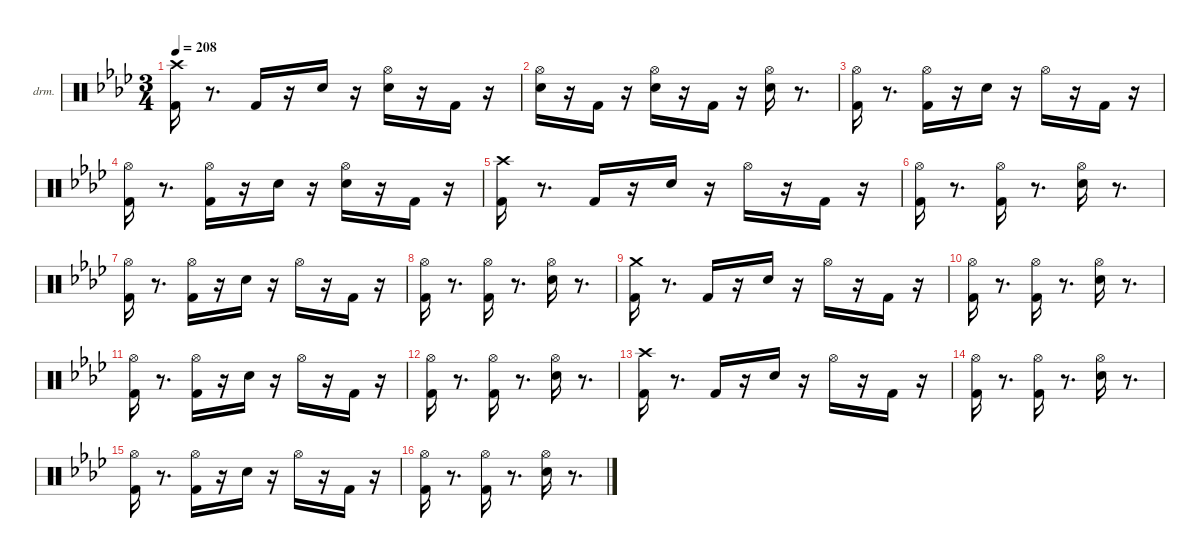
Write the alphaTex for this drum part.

\hideDynamics
\bracketExtendMode nobrackets
\firstSystemTrackNameOrientation horizontal
\otherSystemsTrackNameOrientation horizontal
\track ("EZdrummer 3" "drm.") {instrument percussion}
\staff {score}
\articulation defaults
\ts (3 4)
\tempo 208
\clef neutral
\ks fminor
("Kick (hit) 2"{acc forcenatural} "Crash high (hit)"{acc b}).16{dy ff beam Down} r.8{d beam Down} "Kick (hit) 2"{acc forcenatural}.16{dy f beam Up} r.16{beam Up} "Snare (hit) 2"{acc forcenatural}.16{dy mp beam Down} r.16{beam Down} ("Snare (hit) 2"{acc forcenatural} "Hi-Hat (open)"{acc b}).16{dy f beam Down} r.16{beam Down} "Kick (hit) 2"{acc forcenatural}.16{dy ff beam Up} r.16{beam Up} |
("Snare (hit) 2"{acc forcenatural} "Hi-Hat (open)"{acc b}).16{beam Down} r.16{beam Down} "Kick (hit) 2"{acc forcenatural}.16{beam Up} r.16{beam Up} ("Snare (hit) 2"{acc forcenatural} "Hi-Hat (open)"{acc b}).16{beam Down} r.16{beam Down} "Kick (hit) 2"{acc forcenatural}.16{beam Up} r.16{beam Up} ("Snare (hit) 2"{acc forcenatural} "Hi-Hat (open)"{acc b}).16{beam Down} r.8{d beam Down} |
("Kick (hit) 2"{acc forcenatural} "Hi-Hat (open)"{acc b}).16{beam Down} r.8{d beam Down} ("Kick (hit) 2"{acc forcenatural} "Hi-Hat (open)"{acc b}).16{dy f beam Down} r.16{beam Down} "Snare (hit) 2"{acc forcenatural}.16{dy ff beam Down} r.16{beam Down} "Hi-Hat (open)"{acc b}.16{dy f beam Down} r.16{beam Down} "Kick (hit) 2"{acc forcenatural}.16{beam Up} r.16{beam Up} |
("Kick (hit) 2"{acc forcenatural} "Hi-Hat (open)"{acc b}).16{dy ff beam Down} r.8{d beam Down} ("Kick (hit) 2"{acc forcenatural} "Hi-Hat (open)"{acc b}).16{dy f beam Down} r.16{beam Down} "Snare (hit) 2"{acc forcenatural}.16{dy ppp beam Down} r.16{beam Down} ("Snare (hit) 2"{acc forcenatural} "Hi-Hat (open)"{acc b}).16{dy f beam Down} r.16{beam Down} "Kick (hit) 2"{acc forcenatural}.16{dy mf beam Up} r.16{beam Up} |
("Kick (hit) 2"{acc forcenatural} "Crash high (hit)"{acc b}).16{dy fff beam Down} r.8{d beam Down} "Kick (hit) 2"{acc forcenatural}.16{dy f beam Up} r.16{beam Up} "Snare (hit) 2"{acc forcenatural}.16{dy ff beam Down} r.16{beam Down} "Hi-Hat (open)"{acc b}.16{dy f beam Down} r.16{beam Down} "Kick (hit) 2"{acc forcenatural}.16{dy ff beam Up} r.16{beam Up} |
("Kick (hit) 2"{acc forcenatural} "Hi-Hat (open)"{acc b}).16{beam Down} r.8{d beam Down} ("Kick (hit) 2"{acc forcenatural} "Hi-Hat (open)"{acc b}).16{beam Down} r.8{d beam Down} ("Snare (hit) 2"{acc forcenatural} "Hi-Hat (open)"{acc b}).16{beam Down} r.8{d beam Down} |
("Kick (hit) 2"{acc forcenatural} "Hi-Hat (open)"{acc b}).16{beam Down} r.8{d beam Down} ("Kick (hit) 2"{acc forcenatural} "Hi-Hat (open)"{acc b}).16{dy f beam Down} r.16{beam Down} "Snare (hit) 2"{acc forcenatural}.16{dy ff beam Down} r.16{beam Down} "Hi-Hat (open)"{acc b}.16{dy f beam Down} r.16{beam Down} "Kick (hit) 2"{acc forcenatural}.16{beam Up} r.16{beam Up} |
("Kick (hit) 2"{acc forcenatural} "Hi-Hat (open)"{acc b}).16{dy ff beam Down} r.8{d beam Down} ("Kick (hit) 2"{acc forcenatural} "Hi-Hat (open)"{acc b}).16{beam Down} r.8{d beam Down} ("Snare (hit) 2"{acc forcenatural} "Hi-Hat (open)"{acc b}).16{beam Down} r.8{d beam Down} |
("Kick (hit) 2"{acc forcenatural} "Crash medium (hit)"{acc forcenatural}).16{dy fff beam Down} r.8{d beam Down} "Kick (hit) 2"{acc forcenatural}.16{dy f beam Up} r.16{beam Up} "Snare (hit) 2"{acc forcenatural}.16{dy ff beam Down} r.16{beam Down} "Hi-Hat (open)"{acc b}.16{dy f beam Down} r.16{beam Down} "Kick (hit) 2"{acc forcenatural}.16{dy ff beam Up} r.16{beam Up} |
("Kick (hit) 2"{acc forcenatural} "Hi-Hat (open)"{acc b}).16{beam Down} r.8{d beam Down} ("Kick (hit) 2"{acc forcenatural} "Hi-Hat (open)"{acc b}).16{beam Down} r.8{d beam Down} ("Snare (hit) 2"{acc forcenatural} "Hi-Hat (open)"{acc b}).16{beam Down} r.8{d beam Down} |
("Kick (hit) 2"{acc forcenatural} "Hi-Hat (open)"{acc b}).16{beam Down} r.8{d beam Down} ("Kick (hit) 2"{acc forcenatural} "Hi-Hat (open)"{acc b}).16{dy f beam Down} r.16{beam Down} "Snare (hit) 2"{acc forcenatural}.16{dy ff beam Down} r.16{beam Down} "Hi-Hat (open)"{acc b}.16{dy f beam Down} r.16{beam Down} "Kick (hit) 2"{acc forcenatural}.16{beam Up} r.16{beam Up} |
("Kick (hit) 2"{acc forcenatural} "Hi-Hat (open)"{acc b}).16{dy ff beam Down} r.8{d beam Down} ("Kick (hit) 2"{acc forcenatural} "Hi-Hat (open)"{acc b}).16{beam Down} r.8{d beam Down} ("Snare (hit) 2"{acc forcenatural} "Hi-Hat (open)"{acc b}).16{beam Down} r.8{d beam Down} |
("Kick (hit) 2"{acc forcenatural} "Crash high (hit)"{acc b}).16{beam Down} r.8{d beam Down} "Kick (hit) 2"{acc forcenatural}.16{dy f beam Up} r.16{beam Up} "Snare (hit) 2"{acc forcenatural}.16{dy ff beam Down} r.16{beam Down} "Hi-Hat (open)"{acc b}.16{dy f beam Down} r.16{beam Down} "Kick (hit) 2"{acc forcenatural}.16{dy ff beam Up} r.16{beam Up} |
("Kick (hit) 2"{acc forcenatural} "Hi-Hat (open)"{acc b}).16{beam Down} r.8{d beam Down} ("Kick (hit) 2"{acc forcenatural} "Hi-Hat (open)"{acc b}).16{beam Down} r.8{d beam Down} ("Snare (hit) 2"{acc forcenatural} "Hi-Hat (open)"{acc b}).16{beam Down} r.8{d beam Down} |
("Kick (hit) 2"{acc forcenatural} "Hi-Hat (open)"{acc b}).16{beam Down} r.8{d beam Down} ("Kick (hit) 2"{acc forcenatural} "Hi-Hat (open)"{acc b}).16{dy f beam Down} r.16{beam Down} "Snare (hit) 2"{acc forcenatural}.16{dy ff beam Down} r.16{beam Down} "Hi-Hat (open)"{acc b}.16{dy f beam Down} r.16{beam Down} "Kick (hit) 2"{acc forcenatural}.16{beam Up} r.16{beam Up} |
("Kick (hit) 2"{acc forcenatural} "Hi-Hat (open)"{acc b}).16{dy ff beam Down} r.8{d beam Down} ("Kick (hit) 2"{acc forcenatural} "Hi-Hat (open)"{acc b}).16{beam Down} r.8{d beam Down} ("Snare (hit) 2"{acc forcenatural} "Hi-Hat (open)"{acc b}).16{beam Down} r.8{d beam Down}
